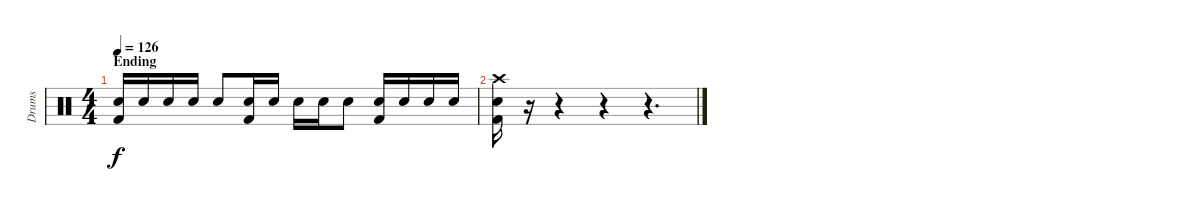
\track ("Drums" "Drums") {instrument percussion}
\staff {score}
\articulation defaults
\ts (4 4)
\section ("" "Ending")
\tempo 126
\clef neutral
\ks c
("Snare (hit) 2" "Kick (hit) 2").16{dy f} "Snare (hit) 2".16 "Snare (hit) 2".16 "Snare (hit) 2".16 "Snare (hit) 2".8 ("Snare (hit) 2" "Kick (hit) 2").16 "Snare (hit) 2".16 "Snare (hit) 2".16 "Snare (hit) 2".16 "Snare (hit) 2".8 ("Snare (hit) 2" "Kick (hit) 2").16 "Snare (hit) 2".16 "Snare (hit) 2".16 "Snare (hit) 2".16 |
("Crash high (hit)" "Snare (hit) 2" "Kick (hit) 2").16 r.16 r.4 r.4 r.4{d}
